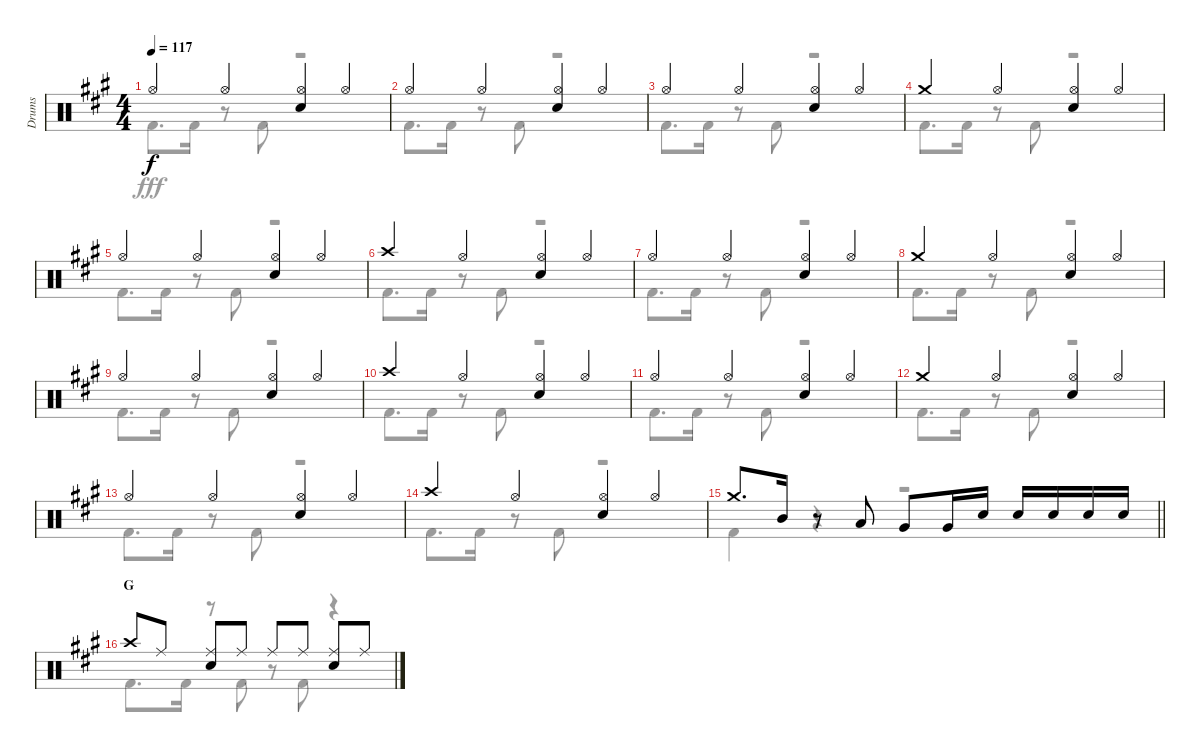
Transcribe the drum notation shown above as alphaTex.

\track ("Drums" "Drums") {instrument percussion}
\staff {score}
\articulation defaults
\voice
\ts (4 4)
\tempo 117
\clef neutral
\ks a "Hi-Hat (open)".4{dy f} "Hi-Hat (open)".4
("Hi-Hat (open)" "Snare (hit) 2").4 "Hi-Hat (open)".4 |
"Hi-Hat (open)".4 "Hi-Hat (open)".4 ("Hi-Hat (open)" "Snare (hit) 2").4 "Hi-Hat (open)".4 |
"Hi-Hat (open)".4 "Hi-Hat (open)".4 ("Hi-Hat (open)" "Snare (hit) 2").4 "Hi-Hat (open)".4 |
"Crash medium (hit)".4 "Hi-Hat (open)".4 ("Hi-Hat (open)" "Snare (hit) 2").4 "Hi-Hat (open)".4 |
"Hi-Hat (open)".4 "Hi-Hat (open)".4 ("Hi-Hat (open)" "Snare (hit) 2").4 "Hi-Hat (open)".4 |
"Crash high (hit)".4 "Hi-Hat (open)".4 ("Hi-Hat (open)" "Snare (hit) 2").4 "Hi-Hat (open)".4 |
"Hi-Hat (open)".4 "Hi-Hat (open)".4 ("Hi-Hat (open)" "Snare (hit) 2").4 "Hi-Hat (open)".4 |
"Crash medium (hit)".4 "Hi-Hat (open)".4 ("Hi-Hat (open)" "Snare (hit) 2").4 "Hi-Hat (open)".4 |
"Hi-Hat (open)".4 "Hi-Hat (open)".4 ("Hi-Hat (open)" "Snare (hit) 2").4 "Hi-Hat (open)".4 |
"Crash high (hit)".4 "Hi-Hat (open)".4 ("Hi-Hat (open)" "Snare (hit) 2").4 "Hi-Hat (open)".4 |
"Hi-Hat (open)".4 "Hi-Hat (open)".4 ("Hi-Hat (open)" "Snare (hit) 2").4 "Hi-Hat (open)".4 |
"Crash medium (hit)".4 "Hi-Hat (open)".4 ("Hi-Hat (open)" "Snare (hit) 2").4 "Hi-Hat (open)".4 |
"Hi-Hat (open)".4 "Hi-Hat (open)".4 ("Hi-Hat (open)" "Snare (hit) 2").4 "Hi-Hat (open)".4 |
"Crash high (hit)".4 "Hi-Hat (open)".4 ("Hi-Hat (open)" "Snare (hit) 2").4 "Hi-Hat (open)".4 |
\barLineRight lightlight "Crash medium (hit)".8{d} "Mid Tom (hit)".16
r.8 "Low Tom (hit)".8 "Very Low Tom (hit)".8 "Very Low Tom (hit)".16 "Snare (hit) 2".16 "Snare (hit) 2".16 "Snare (hit) 2".16 "Snare (hit) 2".16 "Snare (hit) 2".16 |
\section ("" "G")
"Crash high (hit)".8 "Ride (middle)".8 ("Ride (middle)" "Snare (hit) 2").8 "Ride (middle)".8 "Ride (middle)".8 "Ride (middle)".8 ("Ride (middle)" "Snare (hit) 2").8 "Ride (middle)".8
\voice
\clef neutral
\ottava regular
\simile none
\ks a "Kick (hit) 2".8{d dy fff} "Kick (hit) 2".16
r.8 "Kick (hit) 2".8 r.2 |
"Kick (hit) 2".8{d} "Kick (hit) 2".16 r.8 "Kick (hit) 2".8 r.2 |
"Kick (hit) 2".8{d} "Kick (hit) 2".16 r.8 "Kick (hit) 2".8 r.2 |
"Kick (hit) 2".8{d} "Kick (hit) 2".16 r.8 "Kick (hit) 2".8 r.2 |
"Kick (hit) 2".8{d} "Kick (hit) 2".16 r.8 "Kick (hit) 2".8 r.2 |
"Kick (hit) 2".8{d} "Kick (hit) 2".16 r.8 "Kick (hit) 2".8 r.2 |
"Kick (hit) 2".8{d} "Kick (hit) 2".16 r.8 "Kick (hit) 2".8 r.2 |
"Kick (hit) 2".8{d} "Kick (hit) 2".16 r.8 "Kick (hit) 2".8 r.2 |
"Kick (hit) 2".8{d} "Kick (hit) 2".16 r.8 "Kick (hit) 2".8 r.2 |
"Kick (hit) 2".8{d} "Kick (hit) 2".16 r.8 "Kick (hit) 2".8 r.2 |
"Kick (hit) 2".8{d} "Kick (hit) 2".16 r.8 "Kick (hit) 2".8 r.2 |
"Kick (hit) 2".8{d} "Kick (hit) 2".16 r.8 "Kick (hit) 2".8 r.2 |
"Kick (hit) 2".8{d} "Kick (hit) 2".16 r.8 "Kick (hit) 2".8 r.2 |
"Kick (hit) 2".8{d} "Kick (hit) 2".16 r.8 "Kick (hit) 2".8 r.2 |
\barLineRight lightlight "Kick (hit) 2".4
r.4 r.2 |
"Kick (hit) 2".8{d} "Kick (hit) 2".16 r.8 "Kick (hit) 2".8 r.8 "Kick (hit) 2".8 r.4
